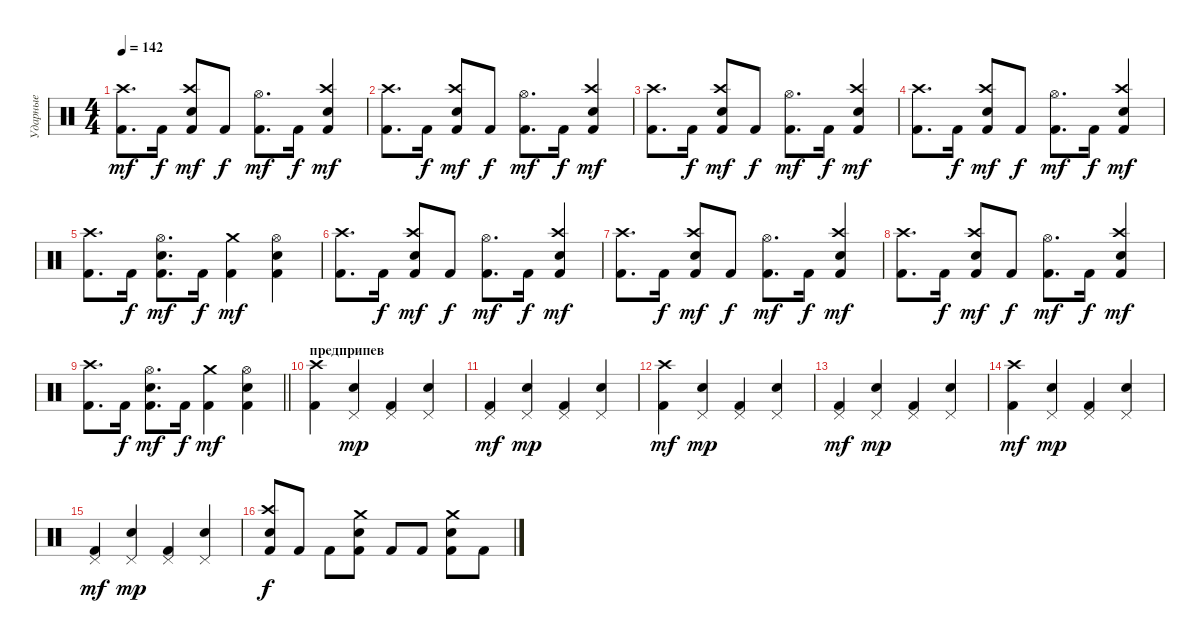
\track ("Ударные" "Ударные") {instrument percussion}
\staff {score}
\articulation defaults
\ts (4 4)
\tempo 142
\clef neutral
\ks c
("Kick (hit) 2" "Crash high (hit)").8{d dy mf} "Kick (hit) 2".16{dy f} ("Kick (hit) 2" "Electric Snare (hit)" "Crash high (hit)").8{dy mf} "Kick (hit) 2".8{dy f} ("Kick (hit) 2" "Hi-Hat (open)").8{d dy mf} "Kick (hit) 2".16{dy f} ("Kick (hit) 2" "Electric Snare (hit)" "Crash high (hit)").4{dy mf} |
("Kick (hit) 2" "Crash high (hit)").8{d} "Kick (hit) 2".16{dy f} ("Kick (hit) 2" "Electric Snare (hit)" "Crash high (hit)").8{dy mf} "Kick (hit) 2".8{dy f} ("Kick (hit) 2" "Hi-Hat (open)").8{d dy mf} "Kick (hit) 2".16{dy f} ("Kick (hit) 2" "Electric Snare (hit)" "Crash high (hit)").4{dy mf} |
("Kick (hit) 2" "Crash high (hit)").8{d} "Kick (hit) 2".16{dy f} ("Kick (hit) 2" "Electric Snare (hit)" "Crash high (hit)").8{dy mf} "Kick (hit) 2".8{dy f} ("Kick (hit) 2" "Hi-Hat (open)").8{d dy mf} "Kick (hit) 2".16{dy f} ("Kick (hit) 2" "Electric Snare (hit)" "Crash high (hit)").4{dy mf} |
("Kick (hit) 2" "Crash high (hit)").8{d} "Kick (hit) 2".16{dy f} ("Kick (hit) 2" "Electric Snare (hit)" "Crash high (hit)").8{dy mf} "Kick (hit) 2".8{dy f} ("Kick (hit) 2" "Hi-Hat (open)").8{d dy mf} "Kick (hit) 2".16{dy f} ("Kick (hit) 2" "Electric Snare (hit)" "Crash high (hit)").4{dy mf} |
("Kick (hit) 2" "Crash high (hit)").8{d} "Kick (hit) 2".16{dy f} ("Kick (hit) 2" "Electric Snare (hit)" "Hi-Hat (open)").8{d dy mf} "Kick (hit) 2".16{dy f} ("Kick (hit) 2" "Crash medium (hit)").4{dy mf} ("Kick (hit) 2" "Electric Snare (hit)" "Hi-Hat (open)").4 |
("Kick (hit) 2" "Crash high (hit)").8{d} "Kick (hit) 2".16{dy f} ("Kick (hit) 2" "Electric Snare (hit)" "Crash high (hit)").8{dy mf} "Kick (hit) 2".8{dy f} ("Kick (hit) 2" "Hi-Hat (open)").8{d dy mf} "Kick (hit) 2".16{dy f} ("Kick (hit) 2" "Electric Snare (hit)" "Crash high (hit)").4{dy mf} |
("Kick (hit) 2" "Crash high (hit)").8{d} "Kick (hit) 2".16{dy f} ("Kick (hit) 2" "Electric Snare (hit)" "Crash high (hit)").8{dy mf} "Kick (hit) 2".8{dy f} ("Kick (hit) 2" "Hi-Hat (open)").8{d dy mf} "Kick (hit) 2".16{dy f} ("Kick (hit) 2" "Electric Snare (hit)" "Crash high (hit)").4{dy mf} |
("Kick (hit) 2" "Crash high (hit)").8{d} "Kick (hit) 2".16{dy f} ("Kick (hit) 2" "Electric Snare (hit)" "Crash high (hit)").8{dy mf} "Kick (hit) 2".8{dy f} ("Kick (hit) 2" "Hi-Hat (open)").8{d dy mf} "Kick (hit) 2".16{dy f} ("Kick (hit) 2" "Electric Snare (hit)" "Crash high (hit)").4{dy mf} |
\barLineRight lightlight
("Kick (hit) 2" "Crash high (hit)").8{d} "Kick (hit) 2".16{dy f} ("Kick (hit) 2" "Electric Snare (hit)" "Hi-Hat (open)").8{d dy mf} "Kick (hit) 2".16{dy f} ("Kick (hit) 2" "Crash medium (hit)").4{dy mf} ("Kick (hit) 2" "Electric Snare (hit)" "Hi-Hat (open)").4 |
\section ("" "предприпев")
("Kick (hit) 2" "Crash high (hit)").4 ("Electric Snare (hit)" "Pedal Hi-Hat (hit)").4{dy mp} ("Kick (hit) 2" "Pedal Hi-Hat (hit)").4 ("Electric Snare (hit)" "Pedal Hi-Hat (hit)").4 |
("Kick (hit) 2" "Pedal Hi-Hat (hit)").4{dy mf} ("Electric Snare (hit)" "Pedal Hi-Hat (hit)").4{dy mp} ("Kick (hit) 2" "Pedal Hi-Hat (hit)").4 ("Electric Snare (hit)" "Pedal Hi-Hat (hit)").4 |
("Kick (hit) 2" "Crash high (hit)").4{dy mf} ("Electric Snare (hit)" "Pedal Hi-Hat (hit)").4{dy mp} ("Kick (hit) 2" "Pedal Hi-Hat (hit)").4 ("Electric Snare (hit)" "Pedal Hi-Hat (hit)").4 |
("Kick (hit) 2" "Pedal Hi-Hat (hit)").4{dy mf} ("Electric Snare (hit)" "Pedal Hi-Hat (hit)").4{dy mp} ("Kick (hit) 2" "Pedal Hi-Hat (hit)").4 ("Electric Snare (hit)" "Pedal Hi-Hat (hit)").4 |
("Kick (hit) 2" "Crash high (hit)").4{dy mf} ("Electric Snare (hit)" "Pedal Hi-Hat (hit)").4{dy mp} ("Kick (hit) 2" "Pedal Hi-Hat (hit)").4 ("Electric Snare (hit)" "Pedal Hi-Hat (hit)").4 |
("Kick (hit) 2" "Pedal Hi-Hat (hit)").4{dy mf} ("Electric Snare (hit)" "Pedal Hi-Hat (hit)").4{dy mp} ("Kick (hit) 2" "Pedal Hi-Hat (hit)").4 ("Electric Snare (hit)" "Pedal Hi-Hat (hit)").4 |
("Kick (hit) 2" "Electric Snare (hit)" "Crash high (hit)").8{dy f} "Kick (hit) 2".8 "Kick (hit) 2".8 ("Kick (hit) 2" "Electric Snare (hit)" "Crash medium (hit)").8 "Kick (hit) 2".8 "Kick (hit) 2".8 ("Kick (hit) 2" "Electric Snare (hit)" "Crash medium (hit)").8 "Kick (hit) 2".8
